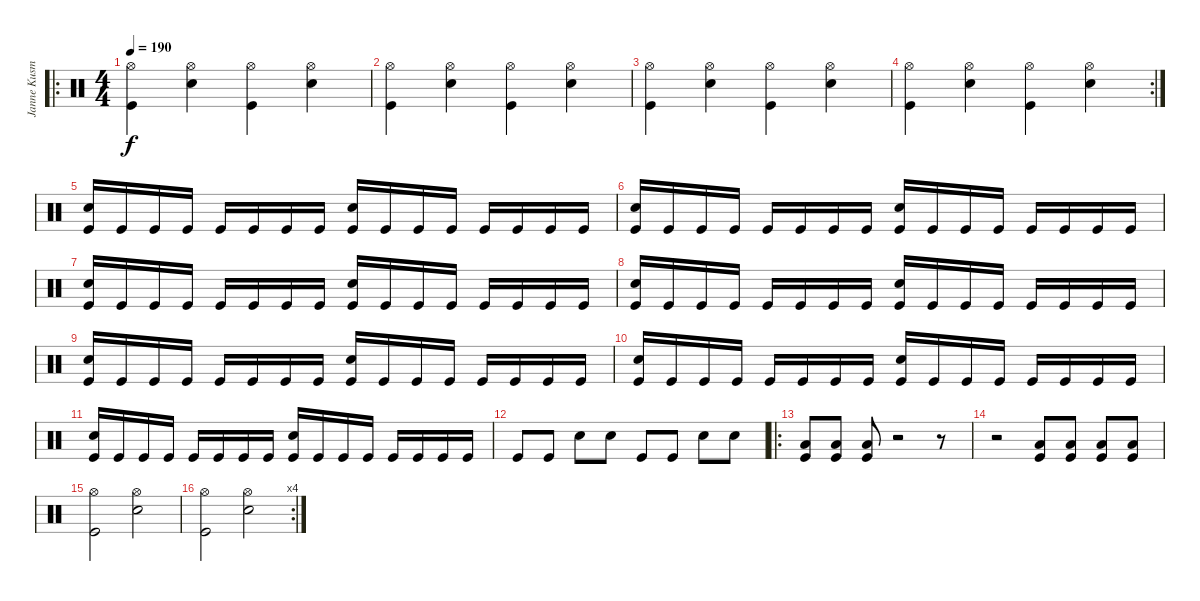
\track ("Janne Kusmin" "Janne Kusm") {instrument percussion}
\staff {score}
\articulation defaults
\ro
\ts (4 4)
\tempo 190
\clef neutral
\ks c
("Hi-Hat (open)" "Kick (hit)").4{dy f} ("Hi-Hat (open)" "Electric Snare (hit)").4 ("Hi-Hat (open)" "Kick (hit)").4 ("Hi-Hat (open)" "Electric Snare (hit)").4 |
("Hi-Hat (open)" "Kick (hit)").4 ("Hi-Hat (open)" "Electric Snare (hit)").4 ("Hi-Hat (open)" "Kick (hit)").4 ("Hi-Hat (open)" "Electric Snare (hit)").4 |
("Hi-Hat (open)" "Kick (hit)").4 ("Hi-Hat (open)" "Electric Snare (hit)").4 ("Hi-Hat (open)" "Kick (hit)").4 ("Hi-Hat (open)" "Electric Snare (hit)").4 |
\rc 2
("Hi-Hat (open)" "Kick (hit)").4 ("Hi-Hat (open)" "Electric Snare (hit)").4 ("Hi-Hat (open)" "Kick (hit)").4 ("Hi-Hat (open)" "Electric Snare (hit)").4 |
("Electric Snare (hit)" "Kick (hit)").16 "Kick (hit)".16 "Kick (hit)".16 "Kick (hit)".16 "Kick (hit)".16 "Kick (hit)".16 "Kick (hit)".16 "Kick (hit)".16 ("Electric Snare (hit)" "Kick (hit)").16 "Kick (hit)".16 "Kick (hit)".16 "Kick (hit)".16 "Kick (hit)".16 "Kick (hit)".16 "Kick (hit)".16 "Kick (hit)".16 |
("Electric Snare (hit)" "Kick (hit)").16 "Kick (hit)".16 "Kick (hit)".16 "Kick (hit)".16 "Kick (hit)".16 "Kick (hit)".16 "Kick (hit)".16 "Kick (hit)".16 ("Electric Snare (hit)" "Kick (hit)").16 "Kick (hit)".16 "Kick (hit)".16 "Kick (hit)".16 "Kick (hit)".16 "Kick (hit)".16 "Kick (hit)".16 "Kick (hit)".16 |
("Electric Snare (hit)" "Kick (hit)").16 "Kick (hit)".16 "Kick (hit)".16 "Kick (hit)".16 "Kick (hit)".16 "Kick (hit)".16 "Kick (hit)".16 "Kick (hit)".16 ("Electric Snare (hit)" "Kick (hit)").16 "Kick (hit)".16 "Kick (hit)".16 "Kick (hit)".16 "Kick (hit)".16 "Kick (hit)".16 "Kick (hit)".16 "Kick (hit)".16 |
("Electric Snare (hit)" "Kick (hit)").16 "Kick (hit)".16 "Kick (hit)".16 "Kick (hit)".16 "Kick (hit)".16 "Kick (hit)".16 "Kick (hit)".16 "Kick (hit)".16 ("Electric Snare (hit)" "Kick (hit)").16 "Kick (hit)".16 "Kick (hit)".16 "Kick (hit)".16 "Kick (hit)".16 "Kick (hit)".16 "Kick (hit)".16 "Kick (hit)".16 |
("Electric Snare (hit)" "Kick (hit)").16 "Kick (hit)".16 "Kick (hit)".16 "Kick (hit)".16 "Kick (hit)".16 "Kick (hit)".16 "Kick (hit)".16 "Kick (hit)".16 ("Electric Snare (hit)" "Kick (hit)").16 "Kick (hit)".16 "Kick (hit)".16 "Kick (hit)".16 "Kick (hit)".16 "Kick (hit)".16 "Kick (hit)".16 "Kick (hit)".16 |
("Electric Snare (hit)" "Kick (hit)").16 "Kick (hit)".16 "Kick (hit)".16 "Kick (hit)".16 "Kick (hit)".16 "Kick (hit)".16 "Kick (hit)".16 "Kick (hit)".16 ("Electric Snare (hit)" "Kick (hit)").16 "Kick (hit)".16 "Kick (hit)".16 "Kick (hit)".16 "Kick (hit)".16 "Kick (hit)".16 "Kick (hit)".16 "Kick (hit)".16 |
("Electric Snare (hit)" "Kick (hit)").16 "Kick (hit)".16 "Kick (hit)".16 "Kick (hit)".16 "Kick (hit)".16 "Kick (hit)".16 "Kick (hit)".16 "Kick (hit)".16 ("Electric Snare (hit)" "Kick (hit)").16 "Kick (hit)".16 "Kick (hit)".16 "Kick (hit)".16 "Kick (hit)".16 "Kick (hit)".16 "Kick (hit)".16 "Kick (hit)".16 |
"Kick (hit)".8 "Kick (hit)".8 "Electric Snare (hit)".8 "Electric Snare (hit)".8 "Kick (hit)".8 "Kick (hit)".8 "Electric Snare (hit)".8 "Electric Snare (hit)".8 |
\ro
("Low Tom (hit)" "Kick (hit)").8 ("Low Tom (hit)" "Kick (hit)").8 ("Low Tom (hit)" "Kick (hit)").8 r.2 r.8 |
r.2 ("Low Tom (hit)" "Kick (hit)").8 ("Low Tom (hit)" "Kick (hit)").8 ("Low Tom (hit)" "Kick (hit)").8 ("Low Tom (hit)" "Kick (hit)").8 |
("Hi-Hat (open)" "Kick (hit)").2 ("Hi-Hat (open)" "Electric Snare (hit)").2 |
\rc 4
("Hi-Hat (open)" "Kick (hit)").2 ("Hi-Hat (open)" "Electric Snare (hit)").2
